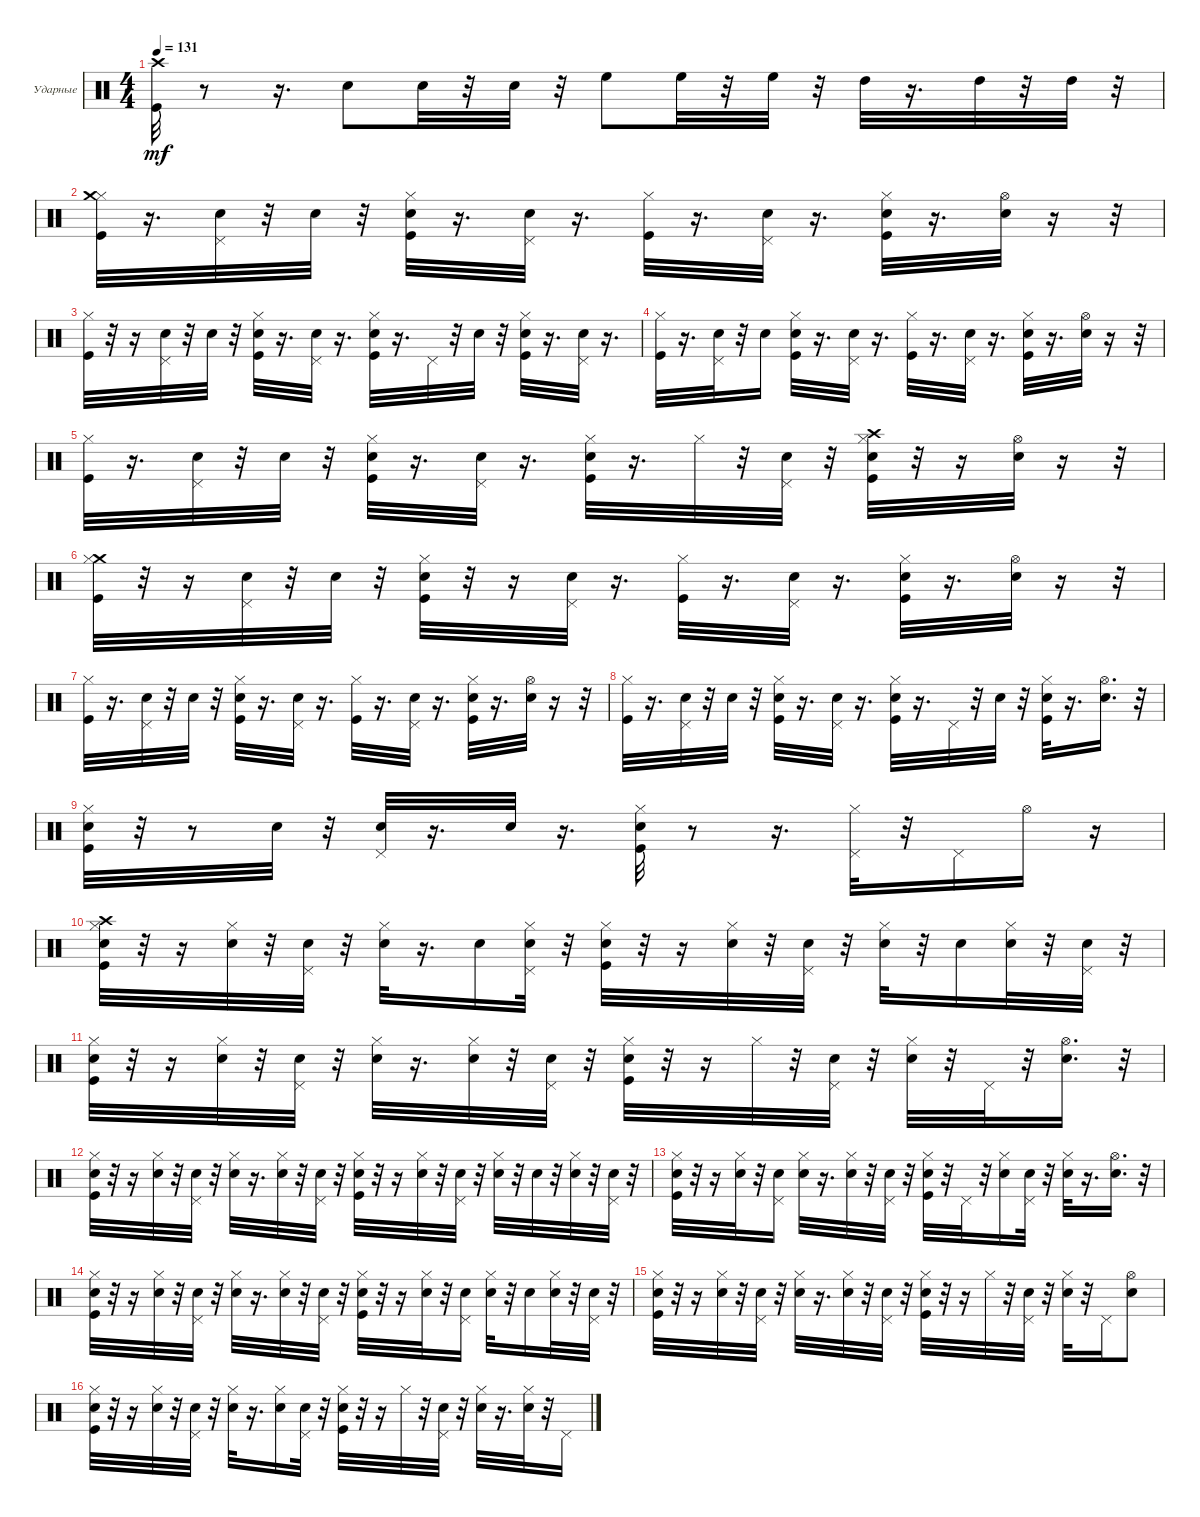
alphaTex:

\bracketExtendMode groupsimilarinstruments
\firstSystemTrackNameOrientation horizontal
\otherSystemsTrackNameOrientation horizontal
\track ("Ударные" "Ударные") {instrument percussion}
\staff {score}
\articulation defaults
\ts (4 4)
\tempo 131
\clef neutral
\ks c
("Kick (hit)" "Crash high (hit)").32{dy mf} r.8 r.16{d} "Snare (hit) 2".8 "Snare (hit) 2".32 r.32 "Snare (hit) 2".32 r.32 "High Floor Tom (hit)".8 "High Floor Tom (hit)".32 r.32 "High Floor Tom (hit)".32 r.32 "High Tom (hit)".32 r.16{d} "High Tom (hit)".32 r.32 "High Tom (hit)".32 r.32 |
("Kick (hit)" "Hi-Hat (closed)" "Crash medium (hit)").32 r.16{d} ("Snare (hit) 2" "Pedal Hi-Hat (hit)").32 r.32 "Snare (hit) 2".32 r.32 ("Hi-Hat (closed)" "Snare (hit) 2" "Kick (hit)").32 r.16{d} ("Snare (hit) 2" "Pedal Hi-Hat (hit)").32 r.16{d} ("Hi-Hat (closed)" "Kick (hit)").32 r.16{d} ("Snare (hit) 2" "Pedal Hi-Hat (hit)").32 r.16{d} ("Hi-Hat (closed)" "Snare (hit) 2" "Kick (hit)").32 r.16{d} ("Snare (hit) 2" "Hi-Hat (open)").32 r.16 r.32 |
("Hi-Hat (closed)" "Kick (hit)").32 r.32 r.16 ("Snare (hit) 2" "Pedal Hi-Hat (hit)").32 r.32 "Snare (hit) 2".32 r.32 ("Snare (hit) 2" "Hi-Hat (closed)" "Kick (hit)").32 r.16{d} ("Snare (hit) 2" "Pedal Hi-Hat (hit)").32 r.16{d} ("Snare (hit) 2" "Hi-Hat (closed)" "Kick (hit)").32 r.16{d} "Pedal Hi-Hat (hit)".32 r.32 "Snare (hit) 2".32 r.32 ("Snare (hit) 2" "Hi-Hat (closed)" "Kick (hit)").32 r.16{d} ("Snare (hit) 2" "Pedal Hi-Hat (hit)").32 r.16{d} |
("Hi-Hat (closed)" "Kick (hit)").32 r.16{d} ("Snare (hit) 2" "Pedal Hi-Hat (hit)").32 r.32 "Snare (hit) 2".16 ("Snare (hit) 2" "Hi-Hat (closed)" "Kick (hit)").32 r.16{d} ("Snare (hit) 2" "Pedal Hi-Hat (hit)").32 r.16{d} ("Kick (hit)" "Hi-Hat (closed)").32 r.16{d} ("Snare (hit) 2" "Pedal Hi-Hat (hit)").32 r.16{d} ("Hi-Hat (closed)" "Snare (hit) 2" "Kick (hit)").32 r.16{d} ("Snare (hit) 2" "Hi-Hat (open)").32 r.16 r.32 |
("Hi-Hat (closed)" "Kick (hit)").32 r.16{d} ("Snare (hit) 2" "Pedal Hi-Hat (hit)").32 r.32 "Snare (hit) 2".32 r.32 ("Snare (hit) 2" "Hi-Hat (closed)" "Kick (hit)").32 r.16{d} ("Snare (hit) 2" "Pedal Hi-Hat (hit)").32 r.16{d} ("Snare (hit) 2" "Hi-Hat (closed)" "Kick (hit)").32 r.16{d} "Hi-Hat (closed)".32 r.32 ("Snare (hit) 2" "Pedal Hi-Hat (hit)").32 r.32 ("Crash high (hit)" "Hi-Hat (closed)" "Snare (hit) 2" "Kick (hit)").32 r.32 r.16 ("Snare (hit) 2" "Hi-Hat (open)").32 r.16 r.32 |
("Crash medium (hit)" "Hi-Hat (closed)" "Kick (hit)").32 r.32 r.16 ("Snare (hit) 2" "Pedal Hi-Hat (hit)").32 r.32 "Snare (hit) 2".32 r.32 ("Snare (hit) 2" "Hi-Hat (closed)" "Kick (hit)").32 r.32 r.16 ("Snare (hit) 2" "Pedal Hi-Hat (hit)").32 r.16{d} ("Hi-Hat (closed)" "Kick (hit)").32 r.16{d} ("Snare (hit) 2" "Pedal Hi-Hat (hit)").32 r.16{d} ("Hi-Hat (closed)" "Snare (hit) 2" "Kick (hit)").32 r.16{d} ("Snare (hit) 2" "Hi-Hat (open)").32 r.16 r.32 |
("Hi-Hat (closed)" "Kick (hit)").32 r.16{d} ("Snare (hit) 2" "Pedal Hi-Hat (hit)").32 r.32 "Snare (hit) 2".32 r.32 ("Snare (hit) 2" "Hi-Hat (closed)" "Kick (hit)").32 r.16{d} ("Snare (hit) 2" "Pedal Hi-Hat (hit)").32 r.16{d} ("Hi-Hat (closed)" "Kick (hit)").32 r.16{d} ("Snare (hit) 2" "Pedal Hi-Hat (hit)").32 r.16{d} ("Hi-Hat (closed)" "Snare (hit) 2" "Kick (hit)").32 r.16{d} ("Snare (hit) 2" "Hi-Hat (open)").32 r.16 r.32 |
("Hi-Hat (closed)" "Kick (hit)").32 r.16{d} ("Snare (hit) 2" "Pedal Hi-Hat (hit)").32 r.32 "Snare (hit) 2".32 r.32 ("Snare (hit) 2" "Hi-Hat (closed)" "Kick (hit)").32 r.16{d} ("Snare (hit) 2" "Pedal Hi-Hat (hit)").32 r.16{d} ("Snare (hit) 2" "Hi-Hat (closed)" "Kick (hit)").32 r.16{d} "Pedal Hi-Hat (hit)".32 r.32 "Snare (hit) 2".32 r.32 ("Snare (hit) 2" "Kick (hit)" "Hi-Hat (closed)").32 r.16{d} ("Snare (hit) 2" "Hi-Hat (open)").16{d} r.32 |
("Snare (hit) 2" "Hi-Hat (closed)" "Kick (hit)").32 r.32 r.8 "Snare (hit) 2".32 r.32 ("Snare (hit) 2" "Pedal Hi-Hat (hit)").32 r.16{d} "Snare (hit) 2".32 r.16{d} ("Snare (hit) 2" "Kick (hit)" "Hi-Hat (closed)").32 r.8 r.16{d} ("Pedal Hi-Hat (hit)" "Hi-Hat (closed)").32 r.32 "Pedal Hi-Hat (hit)".16 "Hi-Hat (open)".16 r.16 |
("Snare (hit) 2" "Crash high (hit)" "Kick (hit)" "Hi-Hat (closed)").32 r.32 r.16 ("Snare (hit) 2" "Hi-Hat (closed)").32 r.32 ("Snare (hit) 2" "Pedal Hi-Hat (hit)").32 r.32 ("Snare (hit) 2" "Hi-Hat (closed)").32 r.16{d} "Snare (hit) 2".16 ("Snare (hit) 2" "Hi-Hat (closed)" "Pedal Hi-Hat (hit)").32 r.32 ("Snare (hit) 2" "Kick (hit)" "Hi-Hat (closed)").32 r.32 r.16 ("Snare (hit) 2" "Hi-Hat (closed)").32 r.32 ("Snare (hit) 2" "Pedal Hi-Hat (hit)").32 r.32 ("Snare (hit) 2" "Hi-Hat (closed)").32 r.32 "Snare (hit) 2".16 ("Snare (hit) 2" "Hi-Hat (closed)").32 r.32 ("Snare (hit) 2" "Pedal Hi-Hat (hit)").32 r.32 |
("Snare (hit) 2" "Kick (hit)" "Hi-Hat (closed)").32 r.32 r.16 ("Snare (hit) 2" "Hi-Hat (closed)").32 r.32 ("Snare (hit) 2" "Pedal Hi-Hat (hit)").32 r.32 ("Snare (hit) 2" "Hi-Hat (closed)").32 r.16{d} ("Snare (hit) 2" "Hi-Hat (closed)").32 r.32 ("Snare (hit) 2" "Pedal Hi-Hat (hit)").32 r.32 ("Snare (hit) 2" "Kick (hit)" "Hi-Hat (closed)").32 r.32 r.16 "Hi-Hat (closed)".32 r.32 ("Snare (hit) 2" "Pedal Hi-Hat (hit)").32 r.32 ("Snare (hit) 2" "Hi-Hat (closed)").32 r.32 "Pedal Hi-Hat (hit)".32 r.32 ("Snare (hit) 2" "Hi-Hat (open)").16{d} r.32 |
("Snare (hit) 2" "Hi-Hat (closed)" "Kick (hit)").32 r.32 r.16 ("Snare (hit) 2" "Hi-Hat (closed)").32 r.32 ("Snare (hit) 2" "Pedal Hi-Hat (hit)").32 r.32 ("Snare (hit) 2" "Hi-Hat (closed)").32 r.16{d} ("Snare (hit) 2" "Hi-Hat (closed)").32 r.32 ("Snare (hit) 2" "Pedal Hi-Hat (hit)").32 r.32 ("Snare (hit) 2" "Kick (hit)" "Hi-Hat (closed)").32 r.32 r.16 ("Snare (hit) 2" "Hi-Hat (closed)").32 r.32 ("Snare (hit) 2" "Pedal Hi-Hat (hit)").32 r.32 ("Snare (hit) 2" "Hi-Hat (closed)").32 r.32 "Snare (hit) 2".32 r.32 ("Snare (hit) 2" "Hi-Hat (closed)").32 r.32 ("Snare (hit) 2" "Pedal Hi-Hat (hit)").32 r.32 |
("Snare (hit) 2" "Kick (hit)" "Hi-Hat (closed)").32 r.32 r.16 ("Snare (hit) 2" "Hi-Hat (closed)").32 r.32 ("Snare (hit) 2" "Pedal Hi-Hat (hit)").16 ("Snare (hit) 2" "Hi-Hat (closed)").32 r.16{d} ("Snare (hit) 2" "Hi-Hat (closed)").32 r.32 ("Snare (hit) 2" "Pedal Hi-Hat (hit)").32 r.32 ("Snare (hit) 2" "Hi-Hat (closed)" "Kick (hit)").32 r.32 "Pedal Hi-Hat (hit)".32 r.32 ("Snare (hit) 2" "Hi-Hat (closed)").16 ("Snare (hit) 2" "Pedal Hi-Hat (hit)").32 r.32 ("Snare (hit) 2" "Hi-Hat (closed)").32 r.16{d} ("Snare (hit) 2" "Hi-Hat (open)").16{d} r.32 |
("Snare (hit) 2" "Hi-Hat (closed)" "Kick (hit)").32 r.32 r.16 ("Snare (hit) 2" "Hi-Hat (closed)").32 r.32 ("Snare (hit) 2" "Pedal Hi-Hat (hit)").32 r.32 ("Snare (hit) 2" "Hi-Hat (closed)").32 r.16{d} ("Snare (hit) 2" "Hi-Hat (closed)").32 r.32 ("Snare (hit) 2" "Pedal Hi-Hat (hit)").32 r.32 ("Snare (hit) 2" "Hi-Hat (closed)" "Kick (hit)").32 r.32 r.16 ("Snare (hit) 2" "Hi-Hat (closed)").32 r.32 ("Snare (hit) 2" "Pedal Hi-Hat (hit)").16 ("Snare (hit) 2" "Hi-Hat (closed)").32 r.32 "Snare (hit) 2".16 ("Snare (hit) 2" "Hi-Hat (closed)").32 r.32 ("Snare (hit) 2" "Pedal Hi-Hat (hit)").32 r.32 |
("Snare (hit) 2" "Hi-Hat (closed)" "Kick (hit)").32 r.32 r.16 ("Snare (hit) 2" "Hi-Hat (closed)").32 r.32 ("Snare (hit) 2" "Pedal Hi-Hat (hit)").32 r.32 ("Snare (hit) 2" "Hi-Hat (closed)").32 r.16{d} ("Snare (hit) 2" "Hi-Hat (closed)").32 r.32 ("Snare (hit) 2" "Pedal Hi-Hat (hit)").32 r.32 ("Snare (hit) 2" "Hi-Hat (closed)" "Kick (hit)").32 r.32 r.16 "Hi-Hat (closed)".32 r.32 ("Snare (hit) 2" "Pedal Hi-Hat (hit)").32 r.32 ("Snare (hit) 2" "Hi-Hat (closed)").32 r.32 "Pedal Hi-Hat (hit)".16 ("Snare (hit) 2" "Hi-Hat (open)").8 |
("Snare (hit) 2" "Kick (hit)" "Hi-Hat (closed)").32 r.32 r.16 ("Snare (hit) 2" "Hi-Hat (closed)").32 r.32 ("Snare (hit) 2" "Pedal Hi-Hat (hit)").32 r.32 ("Snare (hit) 2" "Hi-Hat (closed)").32 r.16{d} ("Snare (hit) 2" "Hi-Hat (closed)").16 ("Snare (hit) 2" "Pedal Hi-Hat (hit)").32 r.32 ("Snare (hit) 2" "Hi-Hat (closed)" "Kick (hit)").32 r.32 r.16 "Hi-Hat (closed)".32 r.32 ("Snare (hit) 2" "Pedal Hi-Hat (hit)").32 r.32 ("Snare (hit) 2" "Hi-Hat (closed)").32 r.16{d} ("Snare (hit) 2" "Hi-Hat (closed)").32 r.32 "Pedal Hi-Hat (hit)".16
